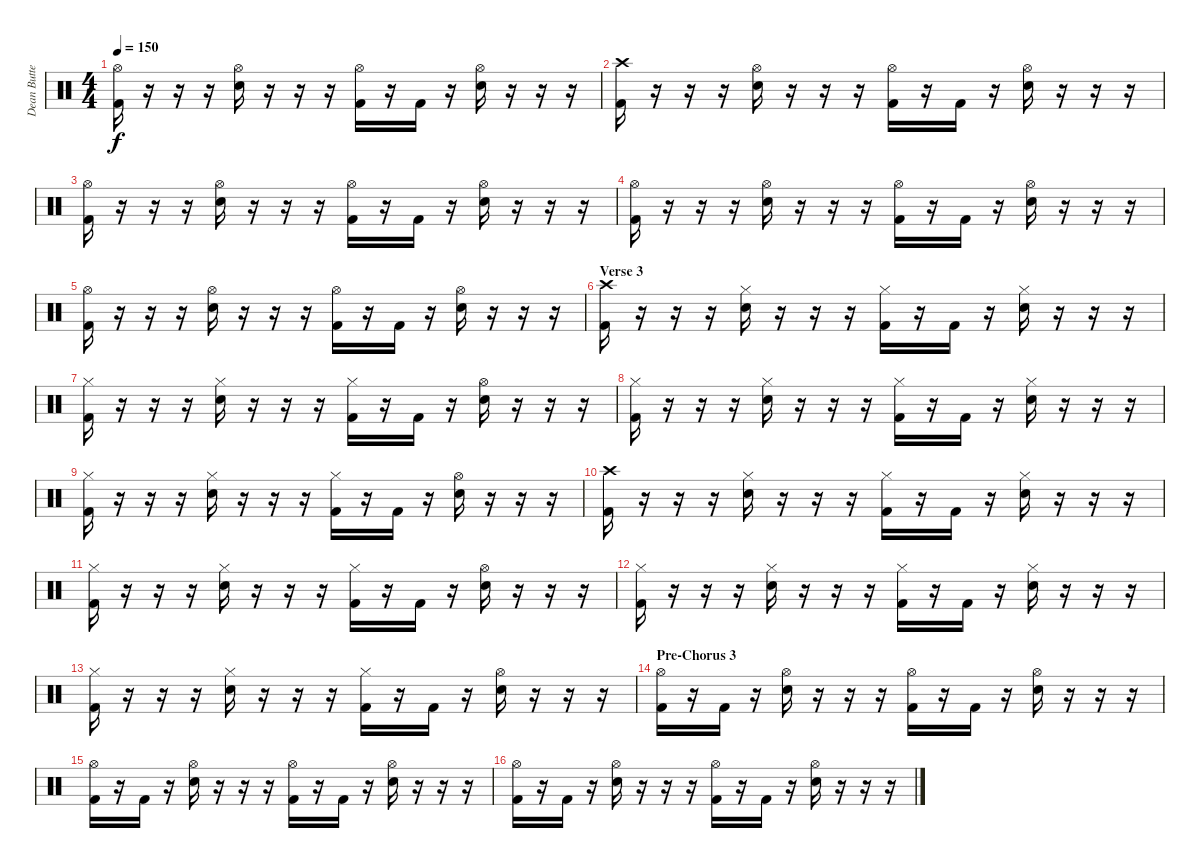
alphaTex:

\track ("Dean Butterworth" "Dean Butte") {instrument percussion}
\staff {score}
\articulation defaults
\ts (4 4)
\tempo 150
\clef neutral
\ks c
("Hi-Hat (open)" "Kick (hit) 2").16{dy f} r.16 r.16 r.16 ("Hi-Hat (open)" "Electric Snare (hit)").16 r.16 r.16 r.16 ("Hi-Hat (open)" "Kick (hit) 2").16 r.16 "Kick (hit) 2".16 r.16 ("Hi-Hat (open)" "Electric Snare (hit)").16 r.16 r.16 r.16 |
("Crash high (hit)" "Kick (hit) 2").16 r.16 r.16 r.16 ("Hi-Hat (open)" "Electric Snare (hit)").16 r.16 r.16 r.16 ("Hi-Hat (open)" "Kick (hit) 2").16 r.16 "Kick (hit) 2".16 r.16 ("Hi-Hat (open)" "Electric Snare (hit)").16 r.16 r.16 r.16 |
("Hi-Hat (open)" "Kick (hit) 2").16 r.16 r.16 r.16 ("Hi-Hat (open)" "Electric Snare (hit)").16 r.16 r.16 r.16 ("Hi-Hat (open)" "Kick (hit) 2").16 r.16 "Kick (hit) 2".16 r.16 ("Hi-Hat (open)" "Electric Snare (hit)").16 r.16 r.16 r.16 |
("Hi-Hat (open)" "Kick (hit) 2").16 r.16 r.16 r.16 ("Hi-Hat (open)" "Electric Snare (hit)").16 r.16 r.16 r.16 ("Hi-Hat (open)" "Kick (hit) 2").16 r.16 "Kick (hit) 2".16 r.16 ("Hi-Hat (open)" "Electric Snare (hit)").16 r.16 r.16 r.16 |
("Hi-Hat (open)" "Kick (hit) 2").16 r.16 r.16 r.16 ("Hi-Hat (open)" "Electric Snare (hit)").16 r.16 r.16 r.16 ("Hi-Hat (open)" "Kick (hit) 2").16 r.16 "Kick (hit) 2".16 r.16 ("Hi-Hat (open)" "Electric Snare (hit)").16 r.16 r.16 r.16 |
\section ("" "Verse 3")
("Crash high (hit)" "Kick (hit) 2").16 r.16 r.16 r.16 ("Hi-Hat (closed)" "Snare (hit) 2").16 r.16 r.16 r.16 ("Hi-Hat (closed)" "Kick (hit) 2").16 r.16 "Kick (hit) 2".16 r.16 ("Hi-Hat (closed)" "Snare (hit) 2").16 r.16 r.16 r.16 |
("Hi-Hat (closed)" "Kick (hit) 2").16 r.16 r.16 r.16 ("Hi-Hat (closed)" "Snare (hit) 2").16 r.16 r.16 r.16 ("Hi-Hat (closed)" "Kick (hit) 2").16 r.16 "Kick (hit) 2".16 r.16 ("Hi-Hat (open)" "Snare (hit) 2").16 r.16 r.16 r.16 |
("Hi-Hat (closed)" "Kick (hit) 2").16 r.16 r.16 r.16 ("Hi-Hat (closed)" "Snare (hit) 2").16 r.16 r.16 r.16 ("Hi-Hat (closed)" "Kick (hit) 2").16 r.16 "Kick (hit) 2".16 r.16 ("Hi-Hat (closed)" "Snare (hit) 2").16 r.16 r.16 r.16 |
("Hi-Hat (closed)" "Kick (hit) 2").16 r.16 r.16 r.16 ("Hi-Hat (closed)" "Snare (hit) 2").16 r.16 r.16 r.16 ("Hi-Hat (closed)" "Kick (hit) 2").16 r.16 "Kick (hit) 2".16 r.16 ("Hi-Hat (open)" "Snare (hit) 2").16 r.16 r.16 r.16 |
("Crash high (hit)" "Kick (hit) 2").16 r.16 r.16 r.16 ("Hi-Hat (closed)" "Snare (hit) 2").16 r.16 r.16 r.16 ("Hi-Hat (closed)" "Kick (hit) 2").16 r.16 "Kick (hit) 2".16 r.16 ("Hi-Hat (closed)" "Snare (hit) 2").16 r.16 r.16 r.16 |
("Hi-Hat (closed)" "Kick (hit) 2").16 r.16 r.16 r.16 ("Hi-Hat (closed)" "Snare (hit) 2").16 r.16 r.16 r.16 ("Hi-Hat (closed)" "Kick (hit) 2").16 r.16 "Kick (hit) 2".16 r.16 ("Hi-Hat (open)" "Snare (hit) 2").16 r.16 r.16 r.16 |
("Hi-Hat (closed)" "Kick (hit) 2").16 r.16 r.16 r.16 ("Hi-Hat (closed)" "Snare (hit) 2").16 r.16 r.16 r.16 ("Hi-Hat (closed)" "Kick (hit) 2").16 r.16 "Kick (hit) 2".16 r.16 ("Hi-Hat (closed)" "Snare (hit) 2").16 r.16 r.16 r.16 |
("Hi-Hat (closed)" "Kick (hit) 2").16 r.16 r.16 r.16 ("Hi-Hat (closed)" "Snare (hit) 2").16 r.16 r.16 r.16 ("Hi-Hat (closed)" "Kick (hit) 2").16 r.16 "Kick (hit) 2".16 r.16 ("Hi-Hat (open)" "Snare (hit) 2").16 r.16 r.16 r.16 |
\section ("" "Pre-Chorus 3")
("Hi-Hat (open)" "Kick (hit) 2").16 r.16 "Kick (hit) 2".16 r.16 ("Hi-Hat (open)" "Snare (hit) 2").16 r.16 r.16 r.16 ("Hi-Hat (open)" "Kick (hit) 2").16 r.16 "Kick (hit) 2".16 r.16 ("Hi-Hat (open)" "Snare (hit) 2").16 r.16 r.16 r.16 |
("Hi-Hat (open)" "Kick (hit) 2").16 r.16 "Kick (hit) 2".16 r.16 ("Hi-Hat (open)" "Snare (hit) 2").16 r.16 r.16 r.16 ("Hi-Hat (open)" "Kick (hit) 2").16 r.16 "Kick (hit) 2".16 r.16 ("Hi-Hat (open)" "Snare (hit) 2").16 r.16 r.16 r.16 |
("Hi-Hat (open)" "Kick (hit) 2").16 r.16 "Kick (hit) 2".16 r.16 ("Hi-Hat (open)" "Snare (hit) 2").16 r.16 r.16 r.16 ("Hi-Hat (open)" "Kick (hit) 2").16 r.16 "Kick (hit) 2".16 r.16 ("Hi-Hat (open)" "Snare (hit) 2").16 r.16 r.16 r.16
